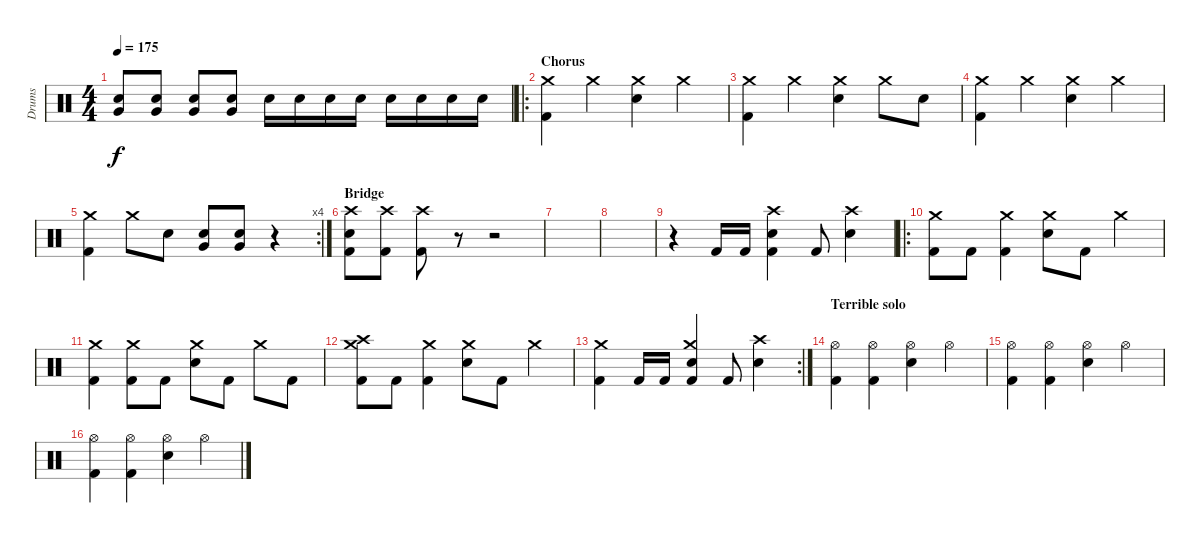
\track ("Drums" "Drums") {instrument percussion}
\staff {score}
\articulation defaults
\ts (4 4)
\tempo 175
\clef neutral
\ks c
("Very Low Tom (hit)" "Snare (hit) 2").8{dy f} ("Very Low Tom (hit)" "Snare (hit) 2").8 ("Very Low Tom (hit)" "Snare (hit) 2").8 ("Very Low Tom (hit)" "Snare (hit) 2").8 "Snare (hit) 2".16 "Snare (hit) 2".16 "Snare (hit) 2".16 "Snare (hit) 2".16 "Snare (hit) 2".16 "Snare (hit) 2".16 "Snare (hit) 2".16 "Snare (hit) 2".16 |
\ro
\section ("" "Chorus")
("Crash medium (hit)" "Kick (hit) 2").4 "Crash medium (hit)".4 ("Crash medium (hit)" "Snare (hit) 2").4 "Crash medium (hit)".4 |
("Crash medium (hit)" "Kick (hit) 2").4 "Crash medium (hit)".4 ("Crash medium (hit)" "Snare (hit) 2").4 "Crash medium (hit)".8 "Snare (hit) 2".8 |
("Crash medium (hit)" "Kick (hit) 2").4 "Crash medium (hit)".4 ("Crash medium (hit)" "Snare (hit) 2").4 "Crash medium (hit)".4 |
\rc 4
("Crash medium (hit)" "Kick (hit) 2").4 "Crash medium (hit)".8 "Snare (hit) 2".8 ("Very Low Tom (hit)" "Snare (hit) 2").8 ("Very Low Tom (hit)" "Snare (hit) 2").8 r.4 |
\section ("" "Bridge")
("Crash high (hit)" "Snare (hit) 2" "Kick (hit) 2").8 ("Crash high (hit)" "Kick (hit) 2").8 ("Crash high (hit)" "Kick (hit) 2").8 r.8{volume 0} r.2 |
|
|
r.4{volume 13} "Kick (hit) 2".16 "Kick (hit) 2".16 ("Crash high (hit)" "Snare (hit) 2" "Kick (hit) 2").4 "Kick (hit) 2".8 ("Crash high (hit)" "Snare (hit) 2").4 |
\ro
("Crash medium (hit)" "Kick (hit) 2").8 "Kick (hit) 2".8 ("Crash medium (hit)" "Kick (hit) 2").4 ("Crash medium (hit)" "Snare (hit) 2").8 "Kick (hit) 2".8 "Crash medium (hit)".4 |
("Crash medium (hit)" "Kick (hit) 2").4 ("Crash medium (hit)" "Kick (hit) 2").8 "Kick (hit) 2".8 ("Crash medium (hit)" "Snare (hit) 2").8 "Kick (hit) 2".8 "Crash medium (hit)".8 "Kick (hit) 2".8 |
("Crash medium (hit)" "Crash high (hit)" "Kick (hit) 2").8 "Kick (hit) 2".8 ("Crash medium (hit)" "Kick (hit) 2").4 ("Crash medium (hit)" "Snare (hit) 2").8 "Kick (hit) 2".8 "Crash medium (hit)".4 |
\rc 2
("Crash medium (hit)" "Kick (hit) 2").4 "Kick (hit) 2".16 "Kick (hit) 2".16 ("Crash medium (hit)" "Snare (hit) 2" "Kick (hit) 2").4 "Kick (hit) 2".8 ("Crash high (hit)" "Snare (hit) 2").4 |
\section ("" "Terrible solo")
("Hi-Hat (open)" "Kick (hit) 2").4 ("Hi-Hat (open)" "Kick (hit) 2").4 ("Hi-Hat (open)" "Snare (hit) 2").4 "Hi-Hat (open)".4 |
("Hi-Hat (open)" "Kick (hit) 2").4 ("Hi-Hat (open)" "Kick (hit) 2").4 ("Hi-Hat (open)" "Snare (hit) 2").4 "Hi-Hat (open)".4 |
("Hi-Hat (open)" "Kick (hit) 2").4 ("Hi-Hat (open)" "Kick (hit) 2").4 ("Hi-Hat (open)" "Snare (hit) 2").4 "Hi-Hat (open)".4
